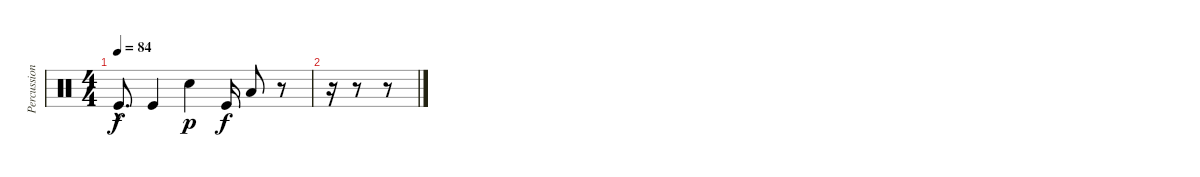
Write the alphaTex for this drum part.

\track ("Percussions" "Percussion") {instrument percussion}
\staff {score}
\articulation defaults
\ts (4 4)
\tempo 84
\clef neutral
\ks c "Kick (hit)"{hac}.8{d dy f} "Kick (hit)".4 "Snare (hit) 2".4{dy p} "Kick (hit)".16{dy f} "Low Tom (hit)".8
r.8 |
r.16 r.8 r.8
